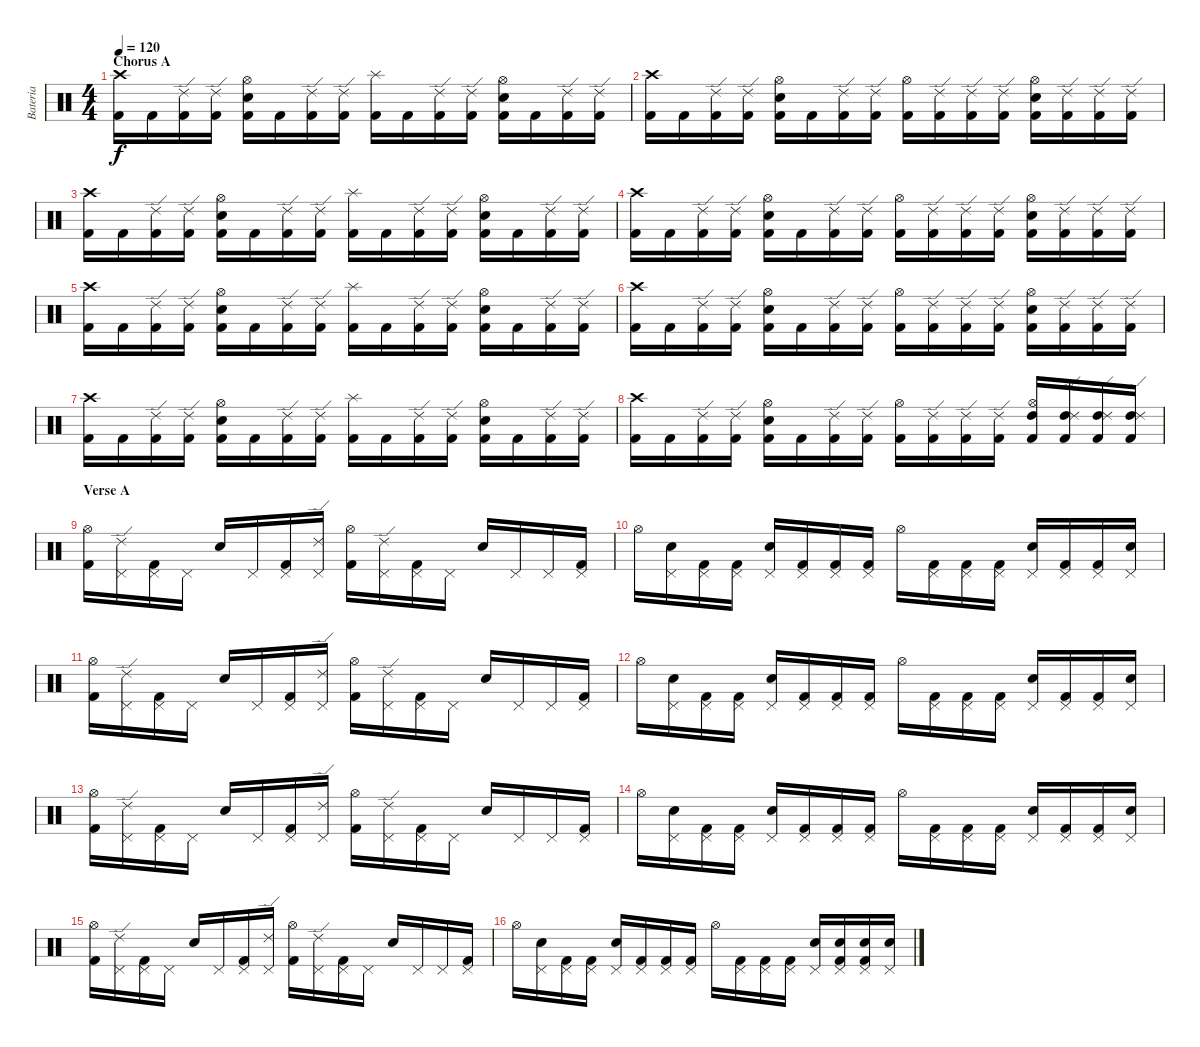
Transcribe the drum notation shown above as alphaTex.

\track ("Bateria" "Bateria") {instrument percussion}
\staff {score}
\articulation defaults
\ts (4 4)
\section ("" "Chorus A")
\tempo 120
\clef neutral
\ks c
("Kick (hit) 2" "Crash high (hit)").16{dy f} "Kick (hit) 2".16 ("Kick (hit) 2" "Ride (edge) 2").16 ("Kick (hit) 2" "Ride (edge) 2").16 ("Kick (hit) 2" "Snare (hit) 2" "Hi-Hat (open)").16 "Kick (hit) 2".16 ("Kick (hit) 2" "Ride (edge) 2").16 ("Kick (hit) 2" "Ride (edge) 2").16 ("Kick (hit) 2" "Splash (hit)").16 "Kick (hit) 2".16 ("Kick (hit) 2" "Ride (edge) 2").16 ("Kick (hit) 2" "Ride (edge) 2").16 ("Kick (hit) 2" "Snare (hit) 2" "Hi-Hat (open)").16 "Kick (hit) 2".16 ("Kick (hit) 2" "Ride (edge) 2").16 ("Kick (hit) 2" "Ride (edge) 2").16 |
("Kick (hit) 2" "Crash high (hit)").16 "Kick (hit) 2".16 ("Kick (hit) 2" "Ride (edge) 2").16 ("Kick (hit) 2" "Ride (edge) 2").16 ("Kick (hit) 2" "Snare (hit) 2" "Hi-Hat (open)").16 "Kick (hit) 2".16 ("Kick (hit) 2" "Ride (edge) 2").16 ("Kick (hit) 2" "Ride (edge) 2").16 ("Kick (hit) 2" "Hi-Hat (open)").16 ("Kick (hit) 2" "Ride (edge) 2").16 ("Kick (hit) 2" "Ride (edge) 2").16 ("Kick (hit) 2" "Ride (edge) 2").16 ("Kick (hit) 2" "Snare (hit) 2" "Hi-Hat (open)").16 ("Kick (hit) 2" "Ride (edge) 2").16 ("Kick (hit) 2" "Ride (edge) 2").16 ("Kick (hit) 2" "Ride (edge) 2").16 |
("Kick (hit) 2" "Crash high (hit)").16 "Kick (hit) 2".16 ("Kick (hit) 2" "Ride (edge) 2").16 ("Kick (hit) 2" "Ride (edge) 2").16 ("Kick (hit) 2" "Snare (hit) 2" "Hi-Hat (open)").16 "Kick (hit) 2".16 ("Kick (hit) 2" "Ride (edge) 2").16 ("Kick (hit) 2" "Ride (edge) 2").16 ("Kick (hit) 2" "Splash (hit)").16 "Kick (hit) 2".16 ("Kick (hit) 2" "Ride (edge) 2").16 ("Kick (hit) 2" "Ride (edge) 2").16 ("Kick (hit) 2" "Snare (hit) 2" "Hi-Hat (open)").16 "Kick (hit) 2".16 ("Kick (hit) 2" "Ride (edge) 2").16 ("Kick (hit) 2" "Ride (edge) 2").16 |
("Kick (hit) 2" "Crash high (hit)").16 "Kick (hit) 2".16 ("Kick (hit) 2" "Ride (edge) 2").16 ("Kick (hit) 2" "Ride (edge) 2").16 ("Kick (hit) 2" "Snare (hit) 2" "Hi-Hat (open)").16 "Kick (hit) 2".16 ("Kick (hit) 2" "Ride (edge) 2").16 ("Kick (hit) 2" "Ride (edge) 2").16 ("Kick (hit) 2" "Hi-Hat (open)").16 ("Kick (hit) 2" "Ride (edge) 2").16 ("Kick (hit) 2" "Ride (edge) 2").16 ("Kick (hit) 2" "Ride (edge) 2").16 ("Kick (hit) 2" "Snare (hit) 2" "Hi-Hat (open)").16 ("Kick (hit) 2" "Ride (edge) 2").16 ("Kick (hit) 2" "Ride (edge) 2").16 ("Kick (hit) 2" "Ride (edge) 2").16 |
("Kick (hit) 2" "Crash high (hit)").16 "Kick (hit) 2".16 ("Kick (hit) 2" "Ride (edge) 2").16 ("Kick (hit) 2" "Ride (edge) 2").16 ("Kick (hit) 2" "Snare (hit) 2" "Hi-Hat (open)").16 "Kick (hit) 2".16 ("Kick (hit) 2" "Ride (edge) 2").16 ("Kick (hit) 2" "Ride (edge) 2").16 ("Kick (hit) 2" "Splash (hit)").16 "Kick (hit) 2".16 ("Kick (hit) 2" "Ride (edge) 2").16 ("Kick (hit) 2" "Ride (edge) 2").16 ("Kick (hit) 2" "Snare (hit) 2" "Hi-Hat (open)").16 "Kick (hit) 2".16 ("Kick (hit) 2" "Ride (edge) 2").16 ("Kick (hit) 2" "Ride (edge) 2").16 |
("Kick (hit) 2" "Crash high (hit)").16 "Kick (hit) 2".16 ("Kick (hit) 2" "Ride (edge) 2").16 ("Kick (hit) 2" "Ride (edge) 2").16 ("Kick (hit) 2" "Snare (hit) 2" "Hi-Hat (open)").16 "Kick (hit) 2".16 ("Kick (hit) 2" "Ride (edge) 2").16 ("Kick (hit) 2" "Ride (edge) 2").16 ("Kick (hit) 2" "Hi-Hat (open)").16 ("Kick (hit) 2" "Ride (edge) 2").16 ("Kick (hit) 2" "Ride (edge) 2").16 ("Kick (hit) 2" "Ride (edge) 2").16 ("Kick (hit) 2" "Snare (hit) 2" "Hi-Hat (open)").16 ("Kick (hit) 2" "Ride (edge) 2").16 ("Kick (hit) 2" "Ride (edge) 2").16 ("Kick (hit) 2" "Ride (edge) 2").16 |
("Kick (hit) 2" "Crash high (hit)").16 "Kick (hit) 2".16 ("Kick (hit) 2" "Ride (edge) 2").16 ("Kick (hit) 2" "Ride (edge) 2").16 ("Kick (hit) 2" "Snare (hit) 2" "Hi-Hat (open)").16 "Kick (hit) 2".16 ("Kick (hit) 2" "Ride (edge) 2").16 ("Kick (hit) 2" "Ride (edge) 2").16 ("Kick (hit) 2" "Splash (hit)").16 "Kick (hit) 2".16 ("Kick (hit) 2" "Ride (edge) 2").16 ("Kick (hit) 2" "Ride (edge) 2").16 ("Kick (hit) 2" "Snare (hit) 2" "Hi-Hat (open)").16 "Kick (hit) 2".16 ("Kick (hit) 2" "Ride (edge) 2").16 ("Kick (hit) 2" "Ride (edge) 2").16 |
("Kick (hit) 2" "Crash high (hit)").16 "Kick (hit) 2".16 ("Kick (hit) 2" "Ride (edge) 2").16 ("Kick (hit) 2" "Ride (edge) 2").16 ("Kick (hit) 2" "Snare (hit) 2" "Hi-Hat (open)").16 "Kick (hit) 2".16 ("Kick (hit) 2" "Ride (edge) 2").16 ("Kick (hit) 2" "Ride (edge) 2").16 ("Kick (hit) 2" "Hi-Hat (open)").16 ("Kick (hit) 2" "Ride (edge) 2").16 ("Kick (hit) 2" "Ride (edge) 2").16 ("Kick (hit) 2" "Ride (edge) 2").16 ("Kick (hit) 2" "High Tom (hit)" "Hi-Hat (open)").16 ("Kick (hit) 2" "High Tom (hit)" "Ride (edge) 2").16 ("Kick (hit) 2" "High Tom (hit)" "Ride (edge) 2").16 ("Kick (hit) 2" "High Tom (hit)" "Ride (edge) 2").16 |
\section ("" "Verse A")
("Kick (hit) 2" "Hi-Hat (open)").16 ("Ride (edge) 2" "Pedal Hi-Hat (hit)").16 ("Kick (hit) 2" "Pedal Hi-Hat (hit)").16 "Pedal Hi-Hat (hit)".16 "Snare (hit) 2".16 "Pedal Hi-Hat (hit)".16 ("Kick (hit) 2" "Pedal Hi-Hat (hit)").16 ("Ride (edge) 2" "Pedal Hi-Hat (hit)").16 ("Kick (hit) 2" "Hi-Hat (open)").16 ("Ride (edge) 2" "Pedal Hi-Hat (hit)").16 ("Kick (hit) 2" "Pedal Hi-Hat (hit)").16 "Pedal Hi-Hat (hit)".16 "Snare (hit) 2".16 "Pedal Hi-Hat (hit)".16 "Pedal Hi-Hat (hit)".16 ("Kick (hit) 2" "Pedal Hi-Hat (hit)").16 |
"Hi-Hat (open)".16 ("Snare (hit) 2" "Pedal Hi-Hat (hit)").16 ("Kick (hit) 2" "Pedal Hi-Hat (hit)").16 ("Kick (hit) 2" "Pedal Hi-Hat (hit)").16 ("Snare (hit) 2" "Pedal Hi-Hat (hit)").16 ("Kick (hit) 2" "Pedal Hi-Hat (hit)").16 ("Kick (hit) 2" "Pedal Hi-Hat (hit)").16 ("Kick (hit) 2" "Pedal Hi-Hat (hit)").16 "Hi-Hat (open)".16 ("Kick (hit) 2" "Pedal Hi-Hat (hit)").16 ("Kick (hit) 2" "Pedal Hi-Hat (hit)").16 ("Kick (hit) 2" "Pedal Hi-Hat (hit)").16 ("Snare (hit) 2" "Pedal Hi-Hat (hit)").16 ("Kick (hit) 2" "Pedal Hi-Hat (hit)").16 ("Kick (hit) 2" "Pedal Hi-Hat (hit)").16 ("Snare (hit) 2" "Pedal Hi-Hat (hit)").16 |
("Kick (hit) 2" "Hi-Hat (open)").16 ("Ride (edge) 2" "Pedal Hi-Hat (hit)").16 ("Kick (hit) 2" "Pedal Hi-Hat (hit)").16 "Pedal Hi-Hat (hit)".16 "Snare (hit) 2".16 "Pedal Hi-Hat (hit)".16 ("Kick (hit) 2" "Pedal Hi-Hat (hit)").16 ("Ride (edge) 2" "Pedal Hi-Hat (hit)").16 ("Kick (hit) 2" "Hi-Hat (open)").16 ("Ride (edge) 2" "Pedal Hi-Hat (hit)").16 ("Kick (hit) 2" "Pedal Hi-Hat (hit)").16 "Pedal Hi-Hat (hit)".16 "Snare (hit) 2".16 "Pedal Hi-Hat (hit)".16 "Pedal Hi-Hat (hit)".16 ("Kick (hit) 2" "Pedal Hi-Hat (hit)").16 |
"Hi-Hat (open)".16 ("Snare (hit) 2" "Pedal Hi-Hat (hit)").16 ("Kick (hit) 2" "Pedal Hi-Hat (hit)").16 ("Kick (hit) 2" "Pedal Hi-Hat (hit)").16 ("Snare (hit) 2" "Pedal Hi-Hat (hit)").16 ("Kick (hit) 2" "Pedal Hi-Hat (hit)").16 ("Kick (hit) 2" "Pedal Hi-Hat (hit)").16 ("Kick (hit) 2" "Pedal Hi-Hat (hit)").16 "Hi-Hat (open)".16 ("Kick (hit) 2" "Pedal Hi-Hat (hit)").16 ("Kick (hit) 2" "Pedal Hi-Hat (hit)").16 ("Kick (hit) 2" "Pedal Hi-Hat (hit)").16 ("Snare (hit) 2" "Pedal Hi-Hat (hit)").16 ("Kick (hit) 2" "Pedal Hi-Hat (hit)").16 ("Kick (hit) 2" "Pedal Hi-Hat (hit)").16 ("Snare (hit) 2" "Pedal Hi-Hat (hit)").16 |
("Kick (hit) 2" "Hi-Hat (open)").16 ("Ride (edge) 2" "Pedal Hi-Hat (hit)").16 ("Kick (hit) 2" "Pedal Hi-Hat (hit)").16 "Pedal Hi-Hat (hit)".16 "Snare (hit) 2".16 "Pedal Hi-Hat (hit)".16 ("Kick (hit) 2" "Pedal Hi-Hat (hit)").16 ("Ride (edge) 2" "Pedal Hi-Hat (hit)").16 ("Kick (hit) 2" "Hi-Hat (open)").16 ("Ride (edge) 2" "Pedal Hi-Hat (hit)").16 ("Kick (hit) 2" "Pedal Hi-Hat (hit)").16 "Pedal Hi-Hat (hit)".16 "Snare (hit) 2".16 "Pedal Hi-Hat (hit)".16 "Pedal Hi-Hat (hit)".16 ("Kick (hit) 2" "Pedal Hi-Hat (hit)").16 |
"Hi-Hat (open)".16 ("Snare (hit) 2" "Pedal Hi-Hat (hit)").16 ("Kick (hit) 2" "Pedal Hi-Hat (hit)").16 ("Kick (hit) 2" "Pedal Hi-Hat (hit)").16 ("Snare (hit) 2" "Pedal Hi-Hat (hit)").16 ("Kick (hit) 2" "Pedal Hi-Hat (hit)").16 ("Kick (hit) 2" "Pedal Hi-Hat (hit)").16 ("Kick (hit) 2" "Pedal Hi-Hat (hit)").16 "Hi-Hat (open)".16 ("Kick (hit) 2" "Pedal Hi-Hat (hit)").16 ("Kick (hit) 2" "Pedal Hi-Hat (hit)").16 ("Kick (hit) 2" "Pedal Hi-Hat (hit)").16 ("Snare (hit) 2" "Pedal Hi-Hat (hit)").16 ("Kick (hit) 2" "Pedal Hi-Hat (hit)").16 ("Kick (hit) 2" "Pedal Hi-Hat (hit)").16 ("Snare (hit) 2" "Pedal Hi-Hat (hit)").16 |
("Kick (hit) 2" "Hi-Hat (open)").16 ("Ride (edge) 2" "Pedal Hi-Hat (hit)").16 ("Kick (hit) 2" "Pedal Hi-Hat (hit)").16 "Pedal Hi-Hat (hit)".16 "Snare (hit) 2".16 "Pedal Hi-Hat (hit)".16 ("Kick (hit) 2" "Pedal Hi-Hat (hit)").16 ("Ride (edge) 2" "Pedal Hi-Hat (hit)").16 ("Kick (hit) 2" "Hi-Hat (open)").16 ("Ride (edge) 2" "Pedal Hi-Hat (hit)").16 ("Kick (hit) 2" "Pedal Hi-Hat (hit)").16 "Pedal Hi-Hat (hit)".16 "Snare (hit) 2".16 "Pedal Hi-Hat (hit)".16 "Pedal Hi-Hat (hit)".16 ("Kick (hit) 2" "Pedal Hi-Hat (hit)").16 |
"Hi-Hat (open)".16 ("Snare (hit) 2" "Pedal Hi-Hat (hit)").16 ("Kick (hit) 2" "Pedal Hi-Hat (hit)").16 ("Kick (hit) 2" "Pedal Hi-Hat (hit)").16 ("Snare (hit) 2" "Pedal Hi-Hat (hit)").16 ("Kick (hit) 2" "Pedal Hi-Hat (hit)").16 ("Kick (hit) 2" "Pedal Hi-Hat (hit)").16 ("Kick (hit) 2" "Pedal Hi-Hat (hit)").16 "Hi-Hat (open)".16 ("Kick (hit) 2" "Pedal Hi-Hat (hit)").16 ("Kick (hit) 2" "Pedal Hi-Hat (hit)").16 ("Kick (hit) 2" "Pedal Hi-Hat (hit)").16 ("Snare (hit) 2" "Pedal Hi-Hat (hit)").16 ("Kick (hit) 2" "Snare (hit) 2" "Pedal Hi-Hat (hit)").16 ("Kick (hit) 2" "Snare (hit) 2" "Pedal Hi-Hat (hit)").16 ("Snare (hit) 2" "Pedal Hi-Hat (hit)").16
